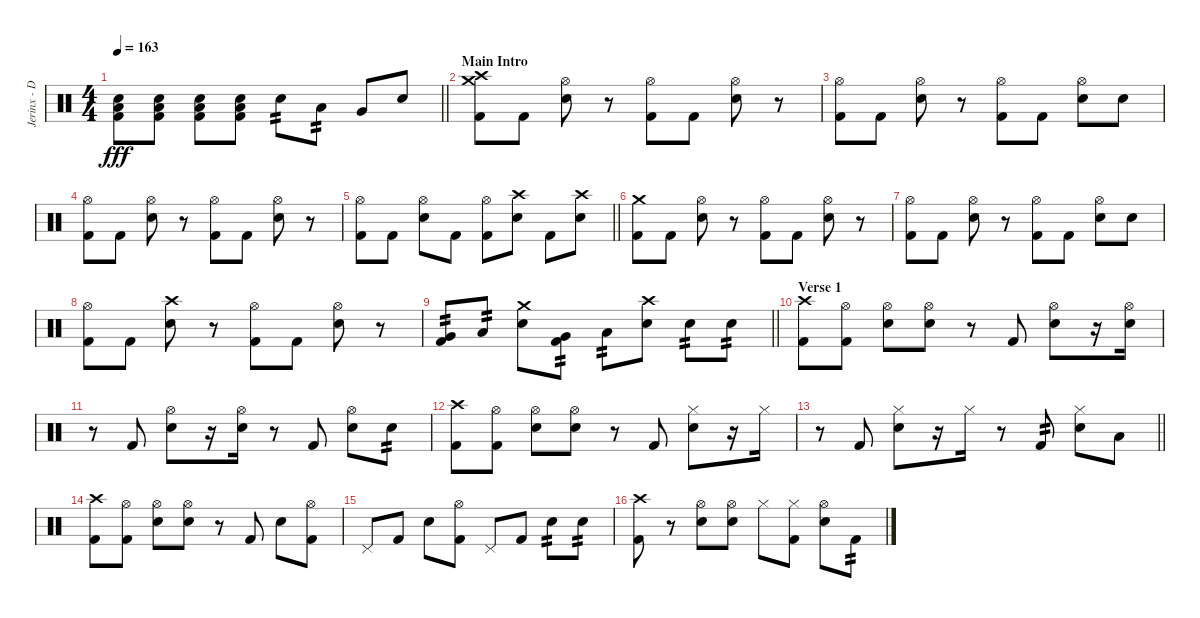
\track ("Jerinx - Drum" "Jerinx - D") {instrument percussion}
\staff {score}
\articulation defaults
\ts (4 4)
\tempo 163
\clef neutral
\barLineRight lightlight
\ks c
("Snare (hit) 2" "Kick (hit) 2" "Low Floor Tom (hit)").8{dy fff} ("Snare (hit) 2" "Kick (hit) 2" "Low Floor Tom (hit)").8 ("Snare (hit) 2" "Kick (hit) 2" "Low Floor Tom (hit)").8 ("Snare (hit) 2" "Kick (hit) 2" "Low Floor Tom (hit)").8 "Snare (hit) 2".8{tp 2} "Low Tom (hit)".8{tp 2} "Very Low Tom (hit)".8 "Snare (hit) 2".8 |
\section ("" "Main Intro")
("Kick (hit) 2" "Crash high (hit)" "Crash medium (hit)").8 "Kick (hit) 2".8 ("Hi-Hat (open)" "Snare (hit) 2").8 r.8 ("Hi-Hat (open)" "Kick (hit) 2").8 "Kick (hit) 2".8 ("Hi-Hat (open)" "Snare (hit) 2").8 r.8 |
("Hi-Hat (open)" "Kick (hit) 2").8 "Kick (hit) 2".8 ("Hi-Hat (open)" "Snare (hit) 2").8 r.8 ("Hi-Hat (open)" "Kick (hit) 2").8 "Kick (hit) 2".8 ("Hi-Hat (open)" "Snare (hit) 2").8 "Snare (hit) 2".8 |
("Hi-Hat (open)" "Kick (hit) 2").8 "Kick (hit) 2".8 ("Hi-Hat (open)" "Snare (hit) 2").8 r.8 ("Hi-Hat (open)" "Kick (hit) 2").8 "Kick (hit) 2".8 ("Hi-Hat (open)" "Snare (hit) 2").8 r.8 |
\barLineRight lightlight
("Hi-Hat (open)" "Kick (hit) 2").8 "Kick (hit) 2".8 ("Hi-Hat (open)" "Snare (hit) 2").8 "Kick (hit) 2".8 ("Hi-Hat (open)" "Kick (hit) 2").8 ("Snare (hit) 2" "Crash high (hit)").8 "Kick (hit) 2".8 ("Snare (hit) 2" "Crash high (hit)").8 |
("Kick (hit) 2" "Crash medium (hit)").8 "Kick (hit) 2".8 ("Hi-Hat (open)" "Snare (hit) 2").8 r.8 ("Hi-Hat (open)" "Kick (hit) 2").8 "Kick (hit) 2".8 ("Hi-Hat (open)" "Snare (hit) 2").8 r.8 |
("Hi-Hat (open)" "Kick (hit) 2").8 "Kick (hit) 2".8 ("Hi-Hat (open)" "Snare (hit) 2").8 r.8 ("Hi-Hat (open)" "Kick (hit) 2").8 "Kick (hit) 2".8 ("Hi-Hat (open)" "Snare (hit) 2").8 "Snare (hit) 2".8 |
("Hi-Hat (open)" "Kick (hit) 2").8 "Kick (hit) 2".8 ("Snare (hit) 2" "Crash high (hit)").8 r.8 ("Hi-Hat (open)" "Kick (hit) 2").8 "Kick (hit) 2".8 ("Hi-Hat (open)" "Snare (hit) 2").8 r.8 |
\barLineRight lightlight
("Kick (hit) 2" "Very Low Tom (hit)").8{tp 2} "Low Floor Tom (hit)".8{tp 2} ("Snare (hit) 2" "Crash medium (hit)").8 ("Kick (hit) 2" "Very Low Tom (hit)").8{tp 2} "Low Floor Tom (hit)".8{tp 2} ("Snare (hit) 2" "Crash high (hit)").8 "Snare (hit) 2".8{tp 2} "Snare (hit) 2".8{tp 2} |
\section ("" "Verse 1")
("Kick (hit) 2" "Crash high (hit)").8 ("Hi-Hat (open)" "Kick (hit) 2").8 ("Hi-Hat (open)" "Snare (hit) 2").8 ("Hi-Hat (open)" "Snare (hit) 2").8 r.8 "Kick (hit) 2".8 ("Hi-Hat (open)" "Snare (hit) 2").8 r.16 ("Hi-Hat (open)" "Snare (hit) 2").16 |
r.8 "Kick (hit) 2".8 ("Hi-Hat (open)" "Snare (hit) 2").8 r.16 ("Hi-Hat (open)" "Snare (hit) 2").16 r.8 "Kick (hit) 2".8 ("Hi-Hat (open)" "Snare (hit) 2").8 "Snare (hit) 2".8{tp 2} |
("Kick (hit) 2" "Crash high (hit)").8 ("Hi-Hat (open)" "Kick (hit) 2").8 ("Hi-Hat (open)" "Snare (hit) 2").8 ("Hi-Hat (open)" "Snare (hit) 2").8 r.8 "Kick (hit) 2".8 ("Hi-Hat (closed)" "Snare (hit) 2").8 r.16 "Hi-Hat (closed)".16 |
\barLineRight lightlight
r.8 "Kick (hit) 2".8 ("Hi-Hat (closed)" "Snare (hit) 2").8 r.16 "Hi-Hat (closed)".16 r.8 "Kick (hit) 2".8{tp 2} ("Hi-Hat (closed)" "Snare (hit) 2").8 "Low Floor Tom (hit)".8 |
("Kick (hit) 2" "Crash high (hit)").8 ("Hi-Hat (open)" "Kick (hit) 2").8 ("Hi-Hat (open)" "Snare (hit) 2").8 ("Hi-Hat (open)" "Snare (hit) 2").8 r.8 "Kick (hit) 2".8 "Snare (hit) 2".8 ("Hi-Hat (open)" "Kick (hit) 2").8 |
"Pedal Hi-Hat (hit)".8 "Kick (hit) 2".8 "Snare (hit) 2".8 ("Hi-Hat (open)" "Kick (hit) 2").8 "Pedal Hi-Hat (hit)".8 "Kick (hit) 2".8 "Snare (hit) 2".8{tp 2} "Snare (hit) 2".8{tp 2} |
("Kick (hit) 2" "Crash high (hit)").8 r.8 ("Hi-Hat (open)" "Snare (hit) 2").8 ("Hi-Hat (open)" "Snare (hit) 2").8 "Hi-Hat (closed)".8 ("Hi-Hat (closed)" "Kick (hit) 2").8 ("Hi-Hat (open)" "Snare (hit) 2").8 "Kick (hit) 2".8{tp 2}
